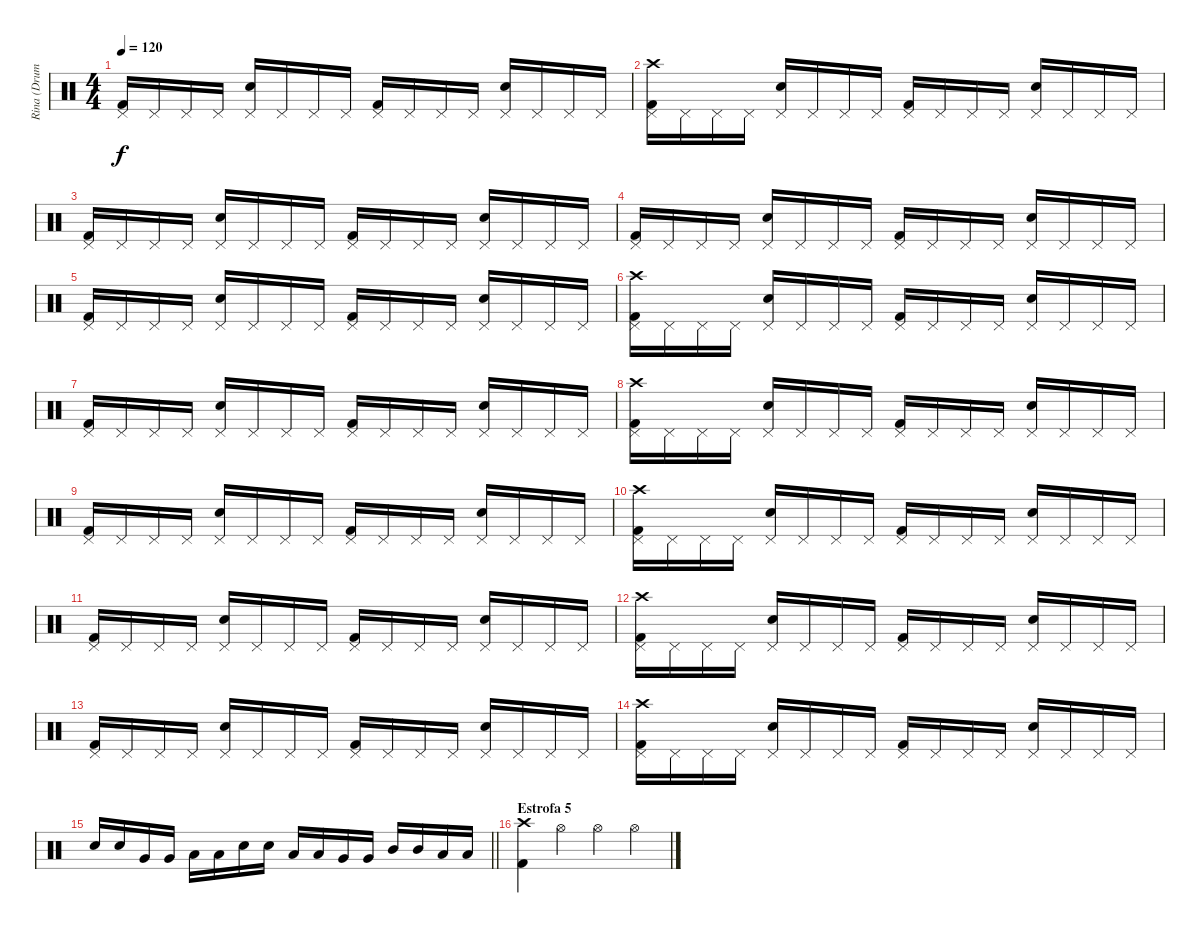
\track ("Rina (Drums)" "Rina (Drum") {instrument percussion}
\staff {score}
\articulation defaults
\ts (4 4)
\tempo 120
\clef neutral
\ks c
("Pedal Hi-Hat (hit)" "Kick (hit) 2").16{dy f} "Pedal Hi-Hat (hit)".16 "Pedal Hi-Hat (hit)".16 "Pedal Hi-Hat (hit)".16 ("Pedal Hi-Hat (hit)" "Snare (hit) 2").16 "Pedal Hi-Hat (hit)".16 "Pedal Hi-Hat (hit)".16 "Pedal Hi-Hat (hit)".16 ("Pedal Hi-Hat (hit)" "Kick (hit) 2").16 "Pedal Hi-Hat (hit)".16 "Pedal Hi-Hat (hit)".16 "Pedal Hi-Hat (hit)".16 ("Pedal Hi-Hat (hit)" "Snare (hit) 2").16 "Pedal Hi-Hat (hit)".16 "Pedal Hi-Hat (hit)".16 "Pedal Hi-Hat (hit)".16 |
("Pedal Hi-Hat (hit)" "Crash high (hit)" "Kick (hit) 2").16 "Pedal Hi-Hat (hit)".16 "Pedal Hi-Hat (hit)".16 "Pedal Hi-Hat (hit)".16 ("Pedal Hi-Hat (hit)" "Snare (hit) 2").16 "Pedal Hi-Hat (hit)".16 "Pedal Hi-Hat (hit)".16 "Pedal Hi-Hat (hit)".16 ("Pedal Hi-Hat (hit)" "Kick (hit) 2").16 "Pedal Hi-Hat (hit)".16 "Pedal Hi-Hat (hit)".16 "Pedal Hi-Hat (hit)".16 ("Pedal Hi-Hat (hit)" "Snare (hit) 2").16 "Pedal Hi-Hat (hit)".16 "Pedal Hi-Hat (hit)".16 "Pedal Hi-Hat (hit)".16 |
("Pedal Hi-Hat (hit)" "Kick (hit) 2").16 "Pedal Hi-Hat (hit)".16 "Pedal Hi-Hat (hit)".16 "Pedal Hi-Hat (hit)".16 ("Pedal Hi-Hat (hit)" "Snare (hit) 2").16 "Pedal Hi-Hat (hit)".16 "Pedal Hi-Hat (hit)".16 "Pedal Hi-Hat (hit)".16 ("Pedal Hi-Hat (hit)" "Kick (hit) 2").16 "Pedal Hi-Hat (hit)".16 "Pedal Hi-Hat (hit)".16 "Pedal Hi-Hat (hit)".16 ("Pedal Hi-Hat (hit)" "Snare (hit) 2").16 "Pedal Hi-Hat (hit)".16 "Pedal Hi-Hat (hit)".16 "Pedal Hi-Hat (hit)".16 |
("Pedal Hi-Hat (hit)" "Kick (hit) 2").16 "Pedal Hi-Hat (hit)".16 "Pedal Hi-Hat (hit)".16 "Pedal Hi-Hat (hit)".16 ("Pedal Hi-Hat (hit)" "Snare (hit) 2").16 "Pedal Hi-Hat (hit)".16 "Pedal Hi-Hat (hit)".16 "Pedal Hi-Hat (hit)".16 ("Pedal Hi-Hat (hit)" "Kick (hit) 2").16 "Pedal Hi-Hat (hit)".16 "Pedal Hi-Hat (hit)".16 "Pedal Hi-Hat (hit)".16 ("Pedal Hi-Hat (hit)" "Snare (hit) 2").16 "Pedal Hi-Hat (hit)".16 "Pedal Hi-Hat (hit)".16 "Pedal Hi-Hat (hit)".16 |
("Pedal Hi-Hat (hit)" "Kick (hit) 2").16 "Pedal Hi-Hat (hit)".16 "Pedal Hi-Hat (hit)".16 "Pedal Hi-Hat (hit)".16 ("Pedal Hi-Hat (hit)" "Snare (hit) 2").16 "Pedal Hi-Hat (hit)".16 "Pedal Hi-Hat (hit)".16 "Pedal Hi-Hat (hit)".16 ("Pedal Hi-Hat (hit)" "Kick (hit) 2").16 "Pedal Hi-Hat (hit)".16 "Pedal Hi-Hat (hit)".16 "Pedal Hi-Hat (hit)".16 ("Pedal Hi-Hat (hit)" "Snare (hit) 2").16 "Pedal Hi-Hat (hit)".16 "Pedal Hi-Hat (hit)".16 "Pedal Hi-Hat (hit)".16 |
("Pedal Hi-Hat (hit)" "Crash high (hit)" "Kick (hit) 2").16 "Pedal Hi-Hat (hit)".16 "Pedal Hi-Hat (hit)".16 "Pedal Hi-Hat (hit)".16 ("Pedal Hi-Hat (hit)" "Snare (hit) 2").16 "Pedal Hi-Hat (hit)".16 "Pedal Hi-Hat (hit)".16 "Pedal Hi-Hat (hit)".16 ("Pedal Hi-Hat (hit)" "Kick (hit) 2").16 "Pedal Hi-Hat (hit)".16 "Pedal Hi-Hat (hit)".16 "Pedal Hi-Hat (hit)".16 ("Pedal Hi-Hat (hit)" "Snare (hit) 2").16 "Pedal Hi-Hat (hit)".16 "Pedal Hi-Hat (hit)".16 "Pedal Hi-Hat (hit)".16 |
("Pedal Hi-Hat (hit)" "Kick (hit) 2").16 "Pedal Hi-Hat (hit)".16 "Pedal Hi-Hat (hit)".16 "Pedal Hi-Hat (hit)".16 ("Pedal Hi-Hat (hit)" "Snare (hit) 2").16 "Pedal Hi-Hat (hit)".16 "Pedal Hi-Hat (hit)".16 "Pedal Hi-Hat (hit)".16 ("Pedal Hi-Hat (hit)" "Kick (hit) 2").16 "Pedal Hi-Hat (hit)".16 "Pedal Hi-Hat (hit)".16 "Pedal Hi-Hat (hit)".16 ("Pedal Hi-Hat (hit)" "Snare (hit) 2").16 "Pedal Hi-Hat (hit)".16 "Pedal Hi-Hat (hit)".16 "Pedal Hi-Hat (hit)".16 |
("Pedal Hi-Hat (hit)" "Crash high (hit)" "Kick (hit) 2").16 "Pedal Hi-Hat (hit)".16 "Pedal Hi-Hat (hit)".16 "Pedal Hi-Hat (hit)".16 ("Pedal Hi-Hat (hit)" "Snare (hit) 2").16 "Pedal Hi-Hat (hit)".16 "Pedal Hi-Hat (hit)".16 "Pedal Hi-Hat (hit)".16 ("Pedal Hi-Hat (hit)" "Kick (hit) 2").16 "Pedal Hi-Hat (hit)".16 "Pedal Hi-Hat (hit)".16 "Pedal Hi-Hat (hit)".16 ("Pedal Hi-Hat (hit)" "Snare (hit) 2").16 "Pedal Hi-Hat (hit)".16 "Pedal Hi-Hat (hit)".16 "Pedal Hi-Hat (hit)".16 |
("Pedal Hi-Hat (hit)" "Kick (hit) 2").16 "Pedal Hi-Hat (hit)".16 "Pedal Hi-Hat (hit)".16 "Pedal Hi-Hat (hit)".16 ("Pedal Hi-Hat (hit)" "Snare (hit) 2").16 "Pedal Hi-Hat (hit)".16 "Pedal Hi-Hat (hit)".16 "Pedal Hi-Hat (hit)".16 ("Pedal Hi-Hat (hit)" "Kick (hit) 2").16 "Pedal Hi-Hat (hit)".16 "Pedal Hi-Hat (hit)".16 "Pedal Hi-Hat (hit)".16 ("Pedal Hi-Hat (hit)" "Snare (hit) 2").16 "Pedal Hi-Hat (hit)".16 "Pedal Hi-Hat (hit)".16 "Pedal Hi-Hat (hit)".16 |
("Pedal Hi-Hat (hit)" "Crash high (hit)" "Kick (hit) 2").16 "Pedal Hi-Hat (hit)".16 "Pedal Hi-Hat (hit)".16 "Pedal Hi-Hat (hit)".16 ("Pedal Hi-Hat (hit)" "Snare (hit) 2").16 "Pedal Hi-Hat (hit)".16 "Pedal Hi-Hat (hit)".16 "Pedal Hi-Hat (hit)".16 ("Pedal Hi-Hat (hit)" "Kick (hit) 2").16 "Pedal Hi-Hat (hit)".16 "Pedal Hi-Hat (hit)".16 "Pedal Hi-Hat (hit)".16 ("Pedal Hi-Hat (hit)" "Snare (hit) 2").16 "Pedal Hi-Hat (hit)".16 "Pedal Hi-Hat (hit)".16 "Pedal Hi-Hat (hit)".16 |
("Pedal Hi-Hat (hit)" "Kick (hit) 2").16 "Pedal Hi-Hat (hit)".16 "Pedal Hi-Hat (hit)".16 "Pedal Hi-Hat (hit)".16 ("Pedal Hi-Hat (hit)" "Snare (hit) 2").16 "Pedal Hi-Hat (hit)".16 "Pedal Hi-Hat (hit)".16 "Pedal Hi-Hat (hit)".16 ("Pedal Hi-Hat (hit)" "Kick (hit) 2").16 "Pedal Hi-Hat (hit)".16 "Pedal Hi-Hat (hit)".16 "Pedal Hi-Hat (hit)".16 ("Pedal Hi-Hat (hit)" "Snare (hit) 2").16 "Pedal Hi-Hat (hit)".16 "Pedal Hi-Hat (hit)".16 "Pedal Hi-Hat (hit)".16 |
("Pedal Hi-Hat (hit)" "Crash high (hit)" "Kick (hit) 2").16 "Pedal Hi-Hat (hit)".16 "Pedal Hi-Hat (hit)".16 "Pedal Hi-Hat (hit)".16 ("Pedal Hi-Hat (hit)" "Snare (hit) 2").16 "Pedal Hi-Hat (hit)".16 "Pedal Hi-Hat (hit)".16 "Pedal Hi-Hat (hit)".16 ("Pedal Hi-Hat (hit)" "Kick (hit) 2").16 "Pedal Hi-Hat (hit)".16 "Pedal Hi-Hat (hit)".16 "Pedal Hi-Hat (hit)".16 ("Pedal Hi-Hat (hit)" "Snare (hit) 2").16 "Pedal Hi-Hat (hit)".16 "Pedal Hi-Hat (hit)".16 "Pedal Hi-Hat (hit)".16 |
("Pedal Hi-Hat (hit)" "Kick (hit) 2").16 "Pedal Hi-Hat (hit)".16 "Pedal Hi-Hat (hit)".16 "Pedal Hi-Hat (hit)".16 ("Pedal Hi-Hat (hit)" "Snare (hit) 2").16 "Pedal Hi-Hat (hit)".16 "Pedal Hi-Hat (hit)".16 "Pedal Hi-Hat (hit)".16 ("Pedal Hi-Hat (hit)" "Kick (hit) 2").16 "Pedal Hi-Hat (hit)".16 "Pedal Hi-Hat (hit)".16 "Pedal Hi-Hat (hit)".16 ("Pedal Hi-Hat (hit)" "Snare (hit) 2").16 "Pedal Hi-Hat (hit)".16 "Pedal Hi-Hat (hit)".16 "Pedal Hi-Hat (hit)".16 |
("Pedal Hi-Hat (hit)" "Crash high (hit)" "Kick (hit) 2").16 "Pedal Hi-Hat (hit)".16 "Pedal Hi-Hat (hit)".16 "Pedal Hi-Hat (hit)".16 ("Pedal Hi-Hat (hit)" "Snare (hit) 2").16 "Pedal Hi-Hat (hit)".16 "Pedal Hi-Hat (hit)".16 "Pedal Hi-Hat (hit)".16 ("Pedal Hi-Hat (hit)" "Kick (hit) 2").16 "Pedal Hi-Hat (hit)".16 "Pedal Hi-Hat (hit)".16 "Pedal Hi-Hat (hit)".16 ("Pedal Hi-Hat (hit)" "Snare (hit) 2").16 "Pedal Hi-Hat (hit)".16 "Pedal Hi-Hat (hit)".16 "Pedal Hi-Hat (hit)".16 |
\barLineRight lightlight "Snare (hit) 2".16 "Snare (hit) 2".16 "Very Low Tom (hit)".16 "Very Low Tom (hit)".16 "Low Tom (hit)".16 "Low Tom (hit)".16 "Snare (hit) 2".16 "Snare (hit) 2".16 "Low Tom (hit)".16 "Low Tom (hit)".16 "Very Low Tom (hit)".16 "Very Low Tom (hit)".16 "Mid Tom (hit)".16 "Mid Tom (hit)".16 "Low Tom (hit)".16 "Low Tom (hit)".16
|
\section ("" "Estrofa 5")
("Crash high (hit)" "Kick (hit) 2").4 "Hi-Hat (open)".4 "Hi-Hat (open)".4 "Hi-Hat (open)".4
